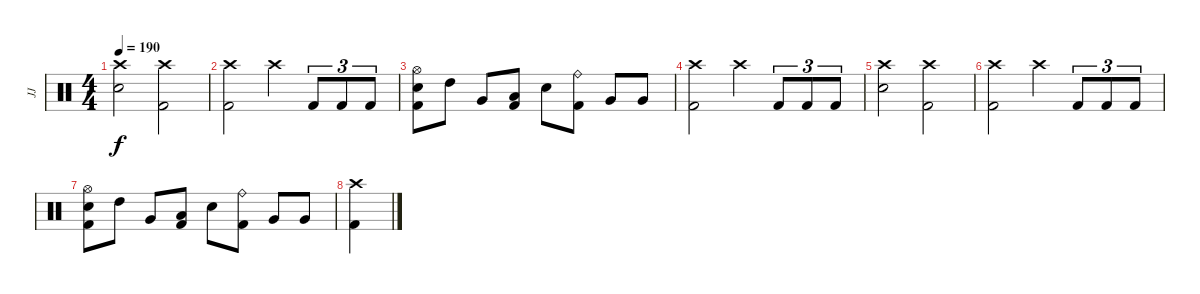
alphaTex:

\track ("JJ" "JJ") {instrument percussion}
\staff {score}
\articulation defaults
\ts (4 4)
\tempo 190
\clef neutral
\ks c
("Crash high (hit)" "Electric Snare (hit)").2{dy f} ("Crash high (hit)" "Kick (hit) 2").2 |
("Crash high (hit)" "Kick (hit) 2").2 "Crash high (hit)".4 "Kick (hit) 2".8{tu (3 2)} "Kick (hit) 2".8{tu (3 2)} "Kick (hit) 2".8{tu (3 2)} |
("Hi-Hat (open)" "Electric Snare (hit)" "Kick (hit) 2").8 "High Tom (hit)".8 "Very Low Tom (hit)".8 ("Low Floor Tom (hit)" "Kick (hit) 2").8 "Electric Snare (hit)".8 ("Ride (bell)" "Kick (hit) 2").8 "Very Low Tom (hit)".8 "Very Low Tom (hit)".8 |
("Crash high (hit)" "Kick (hit) 2").2 "Crash high (hit)".4 "Kick (hit) 2".8{tu (3 2)} "Kick (hit) 2".8{tu (3 2)} "Kick (hit) 2".8{tu (3 2)} |
("Crash high (hit)" "Electric Snare (hit)").2 ("Crash high (hit)" "Kick (hit) 2").2 |
("Crash high (hit)" "Kick (hit) 2").2 "Crash high (hit)".4 "Kick (hit) 2".8{tu (3 2)} "Kick (hit) 2".8{tu (3 2)} "Kick (hit) 2".8{tu (3 2)} |
("Hi-Hat (open)" "Electric Snare (hit)" "Kick (hit) 2").8 "High Tom (hit)".8 "Very Low Tom (hit)".8 ("Low Floor Tom (hit)" "Kick (hit) 2").8 "Electric Snare (hit)".8 ("Ride (bell)" "Kick (hit) 2").8 "Very Low Tom (hit)".8 "Very Low Tom (hit)".8 |
("Crash high (hit)" "Kick (hit) 2").4
